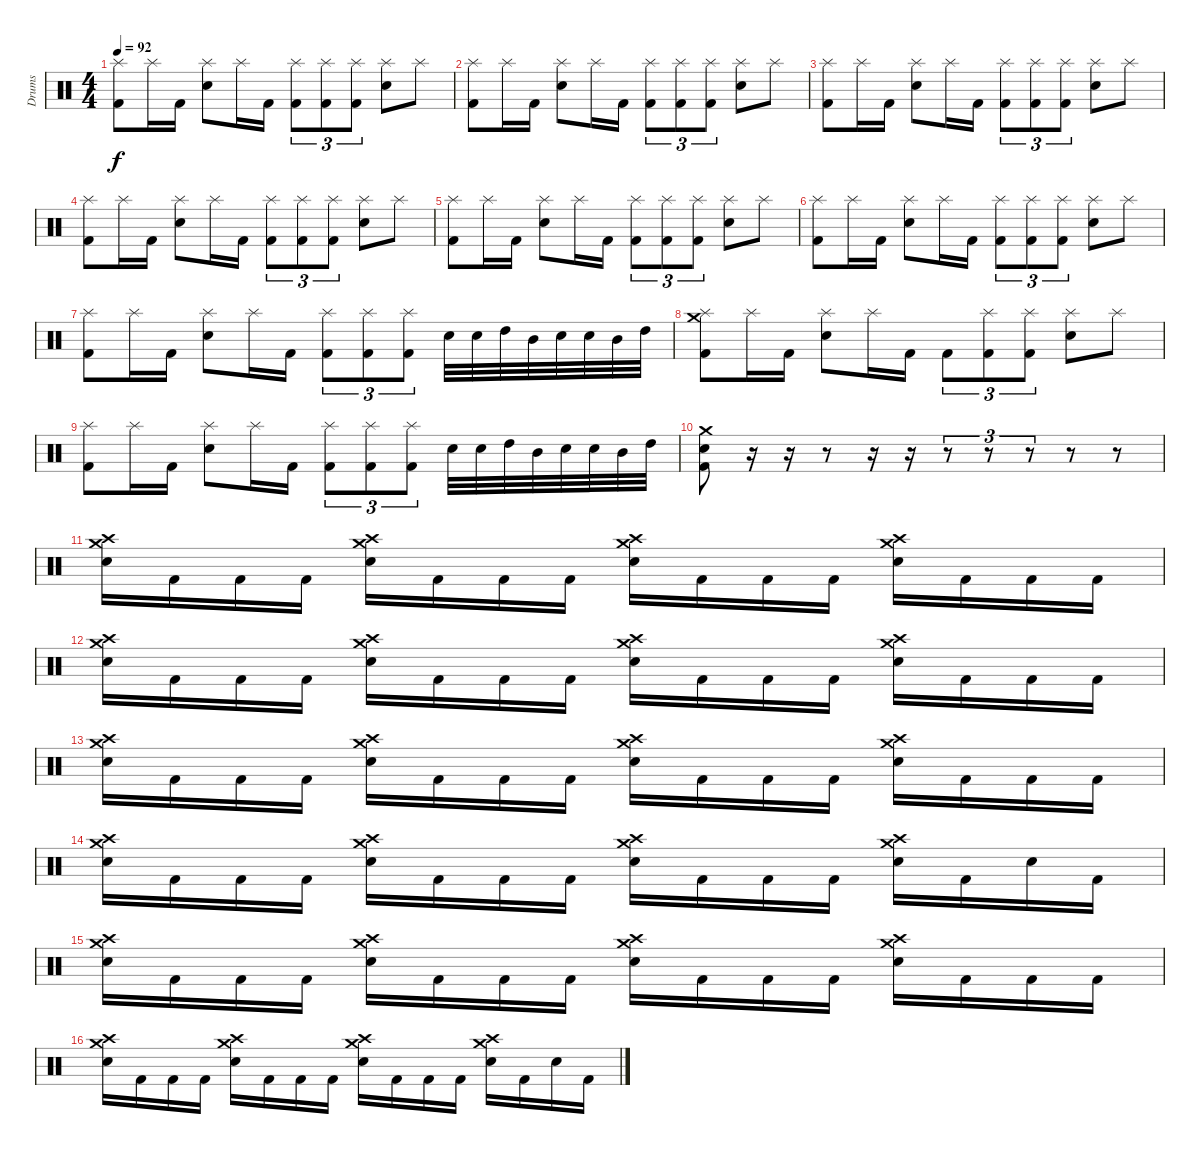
\track ("Drums" "Drums") {instrument percussion}
\staff {score}
\articulation defaults
\ts (4 4)
\tempo 92
\clef neutral
\ks c
("Splash (hit)" "Kick (hit) 2").8{dy f} "Splash (hit)".16 "Kick (hit) 2".16 ("Splash (hit)" "Electric Snare (hit)").8 "Splash (hit)".16 "Kick (hit) 2".16 ("Splash (hit)" "Kick (hit) 2").8{tu (3 2)} ("Splash (hit)" "Kick (hit) 2").8{tu (3 2)} ("Splash (hit)" "Kick (hit) 2").8{tu (3 2)} ("Splash (hit)" "Electric Snare (hit)").8 "Splash (hit)".8 |
("Splash (hit)" "Kick (hit) 2").8 "Splash (hit)".16 "Kick (hit) 2".16 ("Splash (hit)" "Electric Snare (hit)").8 "Splash (hit)".16 "Kick (hit) 2".16 ("Splash (hit)" "Kick (hit) 2").8{tu (3 2)} ("Splash (hit)" "Kick (hit) 2").8{tu (3 2)} ("Splash (hit)" "Kick (hit) 2").8{tu (3 2)} ("Splash (hit)" "Electric Snare (hit)").8 "Splash (hit)".8 |
("Splash (hit)" "Kick (hit) 2").8 "Splash (hit)".16 "Kick (hit) 2".16 ("Splash (hit)" "Electric Snare (hit)").8 "Splash (hit)".16 "Kick (hit) 2".16 ("Splash (hit)" "Kick (hit) 2").8{tu (3 2)} ("Splash (hit)" "Kick (hit) 2").8{tu (3 2)} ("Splash (hit)" "Kick (hit) 2").8{tu (3 2)} ("Splash (hit)" "Electric Snare (hit)").8 "Splash (hit)".8 |
("Splash (hit)" "Kick (hit) 2").8 "Splash (hit)".16 "Kick (hit) 2".16 ("Splash (hit)" "Electric Snare (hit)").8 "Splash (hit)".16 "Kick (hit) 2".16 ("Splash (hit)" "Kick (hit) 2").8{tu (3 2)} ("Splash (hit)" "Kick (hit) 2").8{tu (3 2)} ("Splash (hit)" "Kick (hit) 2").8{tu (3 2)} ("Splash (hit)" "Electric Snare (hit)").8 "Splash (hit)".8 |
("Splash (hit)" "Kick (hit) 2").8 "Splash (hit)".16 "Kick (hit) 2".16 ("Splash (hit)" "Electric Snare (hit)").8 "Splash (hit)".16 "Kick (hit) 2".16 ("Splash (hit)" "Kick (hit) 2").8{tu (3 2)} ("Splash (hit)" "Kick (hit) 2").8{tu (3 2)} ("Splash (hit)" "Kick (hit) 2").8{tu (3 2)} ("Splash (hit)" "Electric Snare (hit)").8 "Splash (hit)".8 |
("Splash (hit)" "Kick (hit) 2").8 "Splash (hit)".16 "Kick (hit) 2".16 ("Splash (hit)" "Electric Snare (hit)").8 "Splash (hit)".16 "Kick (hit) 2".16 ("Splash (hit)" "Kick (hit) 2").8{tu (3 2)} ("Splash (hit)" "Kick (hit) 2").8{tu (3 2)} ("Splash (hit)" "Kick (hit) 2").8{tu (3 2)} ("Splash (hit)" "Electric Snare (hit)").8 "Splash (hit)".8 |
("Splash (hit)" "Kick (hit) 2").8 "Splash (hit)".16 "Kick (hit) 2".16 ("Splash (hit)" "Electric Snare (hit)").8 "Splash (hit)".16 "Kick (hit) 2".16 ("Splash (hit)" "Kick (hit) 2").8{tu (3 2)} ("Splash (hit)" "Kick (hit) 2").8{tu (3 2)} ("Splash (hit)" "Kick (hit) 2").8{tu (3 2)} "Electric Snare (hit)".32 "Electric Snare (hit)".32 "High Tom (hit)".32 "Mid Tom (hit)".32 "Electric Snare (hit)".32 "Electric Snare (hit)".32 "Mid Tom (hit)".32 "High Tom (hit)".32 |
("Splash (hit)" "Crash medium (hit)" "Kick (hit) 2").8 "Splash (hit)".16 "Kick (hit) 2".16 ("Splash (hit)" "Electric Snare (hit)").8 "Splash (hit)".16 "Kick (hit) 2".16 "Kick (hit) 2".8{tu (3 2)} ("Splash (hit)" "Kick (hit) 2").8{tu (3 2)} ("Splash (hit)" "Kick (hit) 2").8{tu (3 2)} ("Splash (hit)" "Electric Snare (hit)").8 "Splash (hit)".8 |
("Splash (hit)" "Kick (hit) 2").8 "Splash (hit)".16 "Kick (hit) 2".16 ("Splash (hit)" "Electric Snare (hit)").8 "Splash (hit)".16 "Kick (hit) 2".16 ("Splash (hit)" "Kick (hit) 2").8{tu (3 2)} ("Splash (hit)" "Kick (hit) 2").8{tu (3 2)} ("Splash (hit)" "Kick (hit) 2").8{tu (3 2)} "Electric Snare (hit)".32 "Electric Snare (hit)".32 "High Tom (hit)".32 "Mid Tom (hit)".32 "Electric Snare (hit)".32 "Electric Snare (hit)".32 "Mid Tom (hit)".32 "High Tom (hit)".32 |
("Crash medium (hit)" "Electric Snare (hit)" "Kick (hit) 2").8 r.16 r.16 r.8 r.16 r.16 r.8{tu (3 2)} r.8{tu (3 2)} r.8{tu (3 2)} r.8 r.8 |
("Crash high (hit)" "Crash medium (hit)" "Electric Snare (hit)").16 "Kick (hit) 2".16 "Kick (hit) 2".16 "Kick (hit) 2".16 ("Crash high (hit)" "Crash medium (hit)" "Electric Snare (hit)").16 "Kick (hit) 2".16 "Kick (hit) 2".16 "Kick (hit) 2".16 ("Crash high (hit)" "Crash medium (hit)" "Electric Snare (hit)").16 "Kick (hit) 2".16 "Kick (hit) 2".16 "Kick (hit) 2".16 ("Crash high (hit)" "Crash medium (hit)" "Electric Snare (hit)").16 "Kick (hit) 2".16 "Kick (hit) 2".16 "Kick (hit) 2".16 |
("Crash high (hit)" "Crash medium (hit)" "Electric Snare (hit)").16 "Kick (hit) 2".16 "Kick (hit) 2".16 "Kick (hit) 2".16 ("Crash high (hit)" "Crash medium (hit)" "Electric Snare (hit)").16 "Kick (hit) 2".16 "Kick (hit) 2".16 "Kick (hit) 2".16 ("Crash high (hit)" "Crash medium (hit)" "Electric Snare (hit)").16 "Kick (hit) 2".16 "Kick (hit) 2".16 "Kick (hit) 2".16 ("Crash high (hit)" "Crash medium (hit)" "Electric Snare (hit)").16 "Kick (hit) 2".16 "Kick (hit) 2".16 "Kick (hit) 2".16 |
("Crash high (hit)" "Crash medium (hit)" "Electric Snare (hit)").16 "Kick (hit) 2".16 "Kick (hit) 2".16 "Kick (hit) 2".16 ("Crash high (hit)" "Crash medium (hit)" "Electric Snare (hit)").16 "Kick (hit) 2".16 "Kick (hit) 2".16 "Kick (hit) 2".16 ("Crash high (hit)" "Crash medium (hit)" "Electric Snare (hit)").16 "Kick (hit) 2".16 "Kick (hit) 2".16 "Kick (hit) 2".16 ("Crash high (hit)" "Crash medium (hit)" "Electric Snare (hit)").16 "Kick (hit) 2".16 "Kick (hit) 2".16 "Kick (hit) 2".16 |
("Crash high (hit)" "Crash medium (hit)" "Electric Snare (hit)").16 "Kick (hit) 2".16 "Kick (hit) 2".16 "Kick (hit) 2".16 ("Crash high (hit)" "Crash medium (hit)" "Electric Snare (hit)").16 "Kick (hit) 2".16 "Kick (hit) 2".16 "Kick (hit) 2".16 ("Crash high (hit)" "Crash medium (hit)" "Electric Snare (hit)").16 "Kick (hit) 2".16 "Kick (hit) 2".16 "Kick (hit) 2".16 ("Crash high (hit)" "Crash medium (hit)" "Electric Snare (hit)").16 "Kick (hit) 2".16 "Electric Snare (hit)".16 "Kick (hit) 2".16 |
("Crash high (hit)" "Crash medium (hit)" "Electric Snare (hit)").16 "Kick (hit) 2".16 "Kick (hit) 2".16 "Kick (hit) 2".16 ("Crash high (hit)" "Crash medium (hit)" "Electric Snare (hit)").16 "Kick (hit) 2".16 "Kick (hit) 2".16 "Kick (hit) 2".16 ("Crash high (hit)" "Crash medium (hit)" "Electric Snare (hit)").16 "Kick (hit) 2".16 "Kick (hit) 2".16 "Kick (hit) 2".16 ("Crash high (hit)" "Crash medium (hit)" "Electric Snare (hit)").16 "Kick (hit) 2".16 "Kick (hit) 2".16 "Kick (hit) 2".16 |
("Crash high (hit)" "Crash medium (hit)" "Electric Snare (hit)").16 "Kick (hit) 2".16 "Kick (hit) 2".16 "Kick (hit) 2".16 ("Crash high (hit)" "Crash medium (hit)" "Electric Snare (hit)").16 "Kick (hit) 2".16 "Kick (hit) 2".16 "Kick (hit) 2".16 ("Crash high (hit)" "Crash medium (hit)" "Electric Snare (hit)").16 "Kick (hit) 2".16 "Kick (hit) 2".16 "Kick (hit) 2".16 ("Crash high (hit)" "Crash medium (hit)" "Electric Snare (hit)").16 "Kick (hit) 2".16 "Electric Snare (hit)".16 "Kick (hit) 2".16
